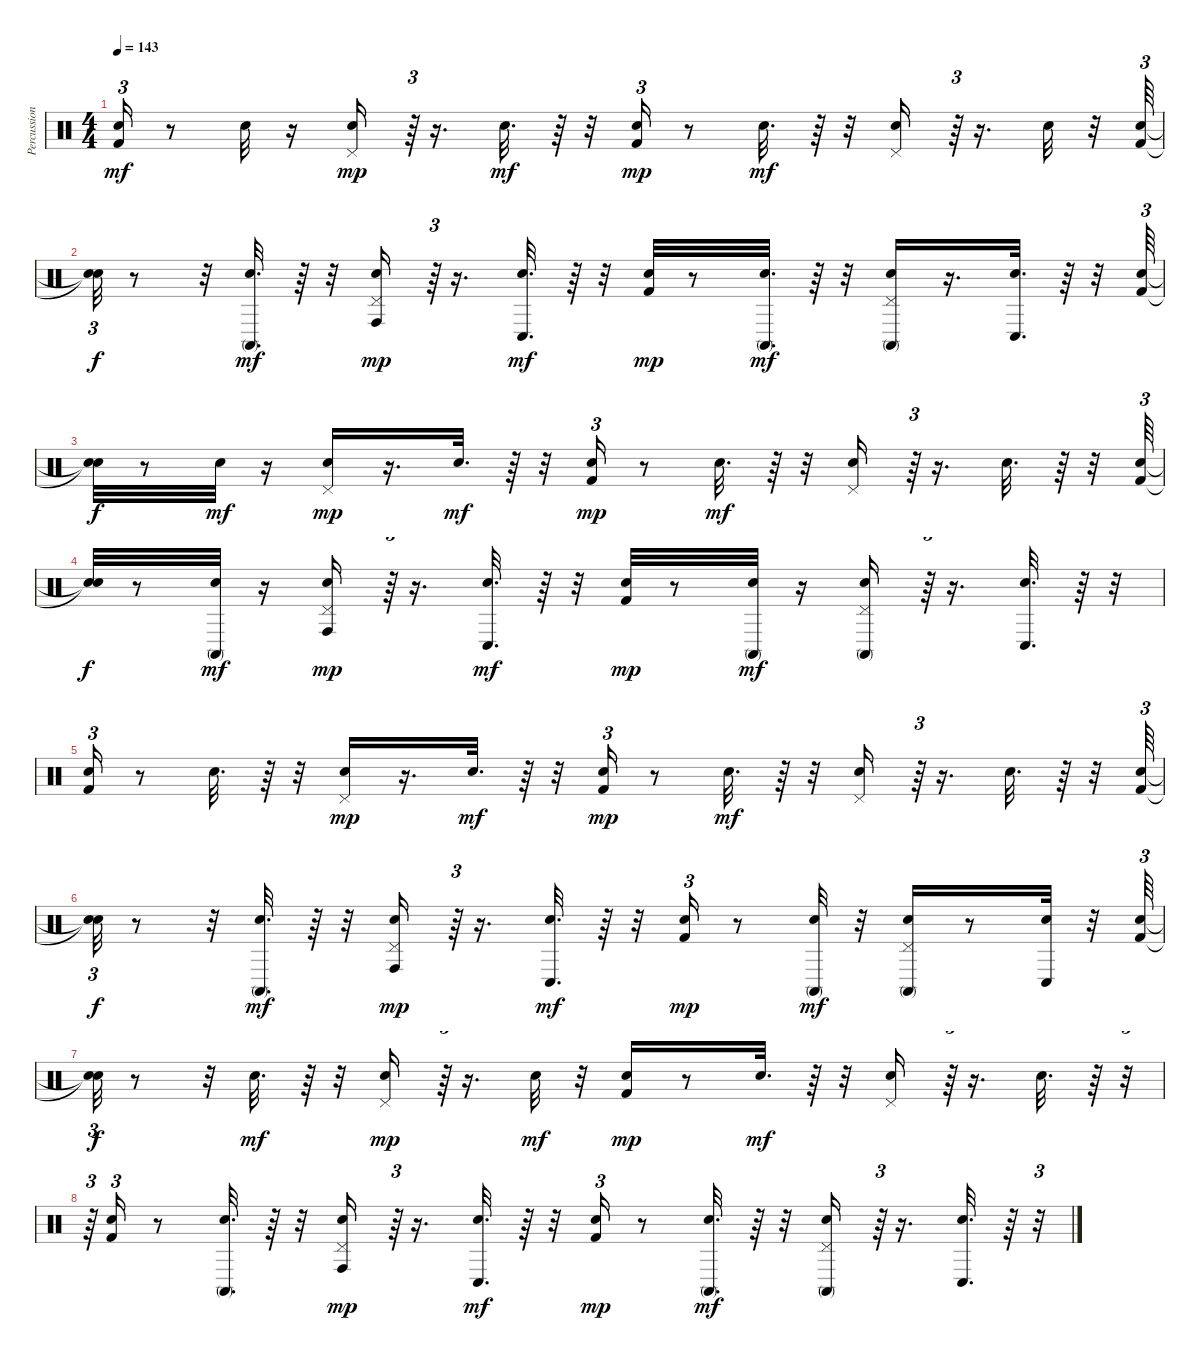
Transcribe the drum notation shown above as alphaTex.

\track ("Percussion" "Percussion") {instrument percussion}
\staff {score}
\articulation defaults
\ts (4 4)
\tempo 143
\clef neutral
\ks c
("Kick (hit) 2" "Snare (hit) 2").16{tu (3 2) dy mf} r.8 "Snare (hit) 2".32 r.16 ("Hand Clap (hit)" "Pedal Hi-Hat (hit)").16{dy mp} r.64{tu (3 2)} r.16{d} "Hand Clap (hit)".32{d dy mf} r.64 r.32 ("Kick (hit) 2" "Snare (hit) 2").16{tu (3 2) dy mp} r.8 "Snare (hit) 2".32{d dy mf} r.64 r.32 ("Hand Clap (hit)" "Pedal Hi-Hat (hit)").16 r.64{tu (3 2)} r.16{d} "Hand Clap (hit)".32 r.32 ("Kick (hit) 2" "Snare (hit) 2").64{tu (3 2)} |
("Snare (hit)"{t} "Snare (hit)"{t}).32{tu (3 2) dy f} r.8 r.32 ("Snare (hit) 2" "Conga high (mute)").32{d dy mf} r.64 r.32 ("Hand Clap (hit)" "Pedal Hi-Hat (hit)" "Conga high (hit)").16{dy mp} r.64{tu (3 2)} r.16{d} ("Hand Clap (hit)" "Conga low (hit)").32{d dy mf} r.64 r.32 ("Kick (hit) 2" "Snare (hit) 2").32{dy mp} r.8 ("Snare (hit) 2" "Conga high (mute)").32{d dy mf} r.64 r.32 ("Hand Clap (hit)" "Pedal Hi-Hat (hit)" "Conga high (mute)").16 r.16{d} ("Hand Clap (hit)" "Conga low (hit)").32{d} r.64 r.32 ("Kick (hit) 2" "Snare (hit) 2").64{tu (3 2)} |
("Snare (hit)"{t} "Snare (hit)"{t}).32{dy f} r.8 "Snare (hit) 2".32{dy mf} r.16 ("Hand Clap (hit)" "Pedal Hi-Hat (hit)").16{dy mp} r.16{d} "Hand Clap (hit)".32{d dy mf} r.64 r.32 ("Kick (hit) 2" "Snare (hit) 2").16{tu (3 2) dy mp} r.8 "Snare (hit) 2".32{d dy mf} r.64 r.32 ("Hand Clap (hit)" "Pedal Hi-Hat (hit)").16 r.64{tu (3 2)} r.16{d} "Hand Clap (hit)".32{d} r.64 r.32 ("Kick (hit) 2" "Snare (hit) 2").64{tu (3 2)} |
("Snare (hit)"{t} "Snare (hit)"{t}).32{dy f} r.8 ("Snare (hit) 2" "Conga high (mute)").32{dy mf} r.16 ("Pedal Hi-Hat (hit)" "Hand Clap (hit)" "Conga high (hit)").16{dy mp} r.64{tu (3 2)} r.16{d} ("Hand Clap (hit)" "Conga low (hit)").32{d dy mf} r.64 r.32 ("Kick (hit) 2" "Snare (hit) 2").32{dy mp} r.8 ("Snare (hit) 2" "Conga high (mute)").32{dy mf} r.16 ("Pedal Hi-Hat (hit)" "Hand Clap (hit)" "Conga high (mute)").16 r.64{tu (3 2)} r.16{d} ("Hand Clap (hit)" "Conga low (hit)").32{d} r.64 r.32 |
("Kick (hit) 2" "Snare (hit) 2").16{tu (3 2)} r.8 "Snare (hit) 2".32{d} r.64 r.32 ("Pedal Hi-Hat (hit)" "Hand Clap (hit)").16{dy mp} r.16{d} "Hand Clap (hit)".32{d dy mf} r.64 r.32 ("Kick (hit) 2" "Snare (hit) 2").16{tu (3 2) dy mp} r.8 "Snare (hit) 2".32{d dy mf} r.64 r.32 ("Hand Clap (hit)" "Pedal Hi-Hat (hit)").16 r.64{tu (3 2)} r.16{d} "Hand Clap (hit)".32{d} r.64 r.32 ("Kick (hit) 2" "Snare (hit) 2").64{tu (3 2)} |
("Snare (hit)"{t} "Snare (hit)"{t}).32{tu (3 2) dy f} r.8 r.32 ("Snare (hit) 2" "Conga high (mute)").32{d dy mf} r.64 r.32 ("Hand Clap (hit)" "Pedal Hi-Hat (hit)" "Conga high (hit)").16{dy mp} r.64{tu (3 2)} r.16{d} ("Hand Clap (hit)" "Conga low (hit)").32{d dy mf} r.64 r.32 ("Kick (hit) 2" "Snare (hit) 2").16{tu (3 2) dy mp} r.8 ("Snare (hit) 2" "Conga high (mute)").32{dy mf} r.32 ("Hand Clap (hit)" "Pedal Hi-Hat (hit)" "Conga high (mute)").16 r.8 ("Hand Clap (hit)" "Conga low (hit)").32 r.32 ("Kick (hit) 2" "Snare (hit) 2").64{tu (3 2)} |
("Snare (hit)"{t} "Snare (hit)"{t}).32{tu (3 2) dy f} r.8 r.32 "Snare (hit) 2".32{d dy mf} r.64 r.32 ("Hand Clap (hit)" "Pedal Hi-Hat (hit)").16{dy mp} r.64{tu (3 2)} r.16{d} "Hand Clap (hit)".32{dy mf} r.32 ("Kick (hit) 2" "Snare (hit) 2").16{dy mp} r.8 "Snare (hit) 2".32{d dy mf} r.64 r.32 ("Hand Clap (hit)" "Pedal Hi-Hat (hit)").16 r.64{tu (3 2)} r.16{d} "Hand Clap (hit)".32{d} r.64 r.32{tu (3 2)} |
r.64{tu (3 2)} ("Kick (hit) 2" "Snare (hit) 2").16{tu (3 2)} r.8 ("Snare (hit) 2" "Conga high (mute)").32{d} r.64 r.32 ("Hand Clap (hit)" "Pedal Hi-Hat (hit)" "Conga high (hit)").16{dy mp} r.64{tu (3 2)} r.16{d} ("Hand Clap (hit)" "Conga low (hit)").32{d dy mf} r.64 r.32 ("Kick (hit) 2" "Snare (hit) 2").16{tu (3 2) dy mp} r.8 ("Snare (hit) 2" "Conga high (mute)").32{d dy mf} r.64 r.32 ("Hand Clap (hit)" "Pedal Hi-Hat (hit)" "Conga high (mute)").16 r.64{tu (3 2)} r.16{d} ("Hand Clap (hit)" "Conga low (hit)").32{d} r.64 r.32{tu (3 2)}
